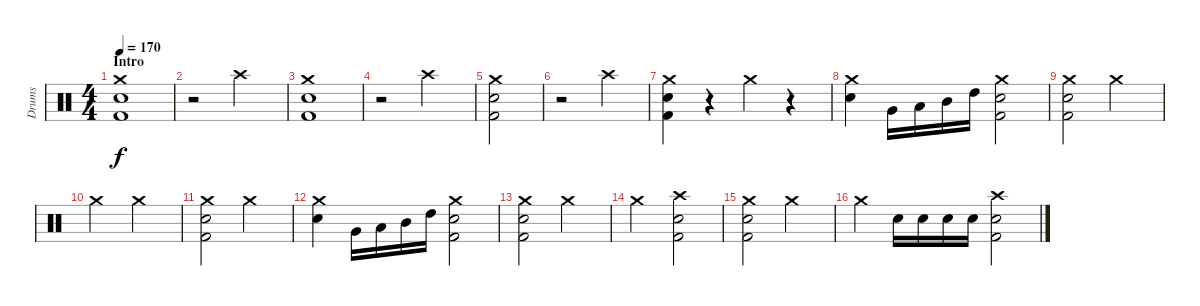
\track ("Drums" "Drums") {instrument percussion}
\staff {score}
\articulation defaults
\ts (4 4)
\section ("" "Intro")
\tempo 170
\clef neutral
\ks c
("Kick (hit) 2" "Snare (hit) 2" "Crash medium (hit)").1{dy f} |
r.2 "Crash high (hit)".2 |
("Kick (hit) 2" "Snare (hit) 2" "Crash medium (hit)").1 |
r.2 "Crash high (hit)".2 |
("Kick (hit) 2" "Snare (hit) 2" "Crash medium (hit)").2 |
r.2 "Crash high (hit)".4 |
("Kick (hit) 2" "Snare (hit) 2" "Crash medium (hit)").4 r.4 "Crash medium (hit)".4 r.4 |
("Snare (hit) 2" "Crash medium (hit)").4 "Very Low Tom (hit)".16 "Low Tom (hit)".16 "Mid Tom (hit)".16 "High Tom (hit)".16 ("Kick (hit) 2" "Snare (hit) 2" "Crash medium (hit)").2 |
("Kick (hit) 2" "Snare (hit) 2" "Crash medium (hit)").2 "Crash medium (hit)".2 |
"Crash medium (hit)".2 "Crash medium (hit)".2 |
("Kick (hit) 2" "Snare (hit) 2" "Crash medium (hit)").2 "Crash medium (hit)".2 |
("Snare (hit) 2" "Crash medium (hit)").4 "Very Low Tom (hit)".16 "Low Tom (hit)".16 "Mid Tom (hit)".16 "High Tom (hit)".16 ("Kick (hit) 2" "Snare (hit) 2" "Crash medium (hit)").2 |
("Kick (hit) 2" "Snare (hit) 2" "Crash medium (hit)").2 "Crash medium (hit)".2 |
"Crash medium (hit)".2 ("Kick (hit) 2" "Snare (hit) 2" "Crash high (hit)").2 |
("Kick (hit) 2" "Snare (hit) 2" "Crash medium (hit)").2 "Crash medium (hit)".2 |
"Crash medium (hit)".4 "Snare (hit) 2".16 "Snare (hit) 2".16 "Snare (hit) 2".16 "Snare (hit) 2".16 ("Kick (hit) 2" "Snare (hit) 2" "Crash high (hit)").2
